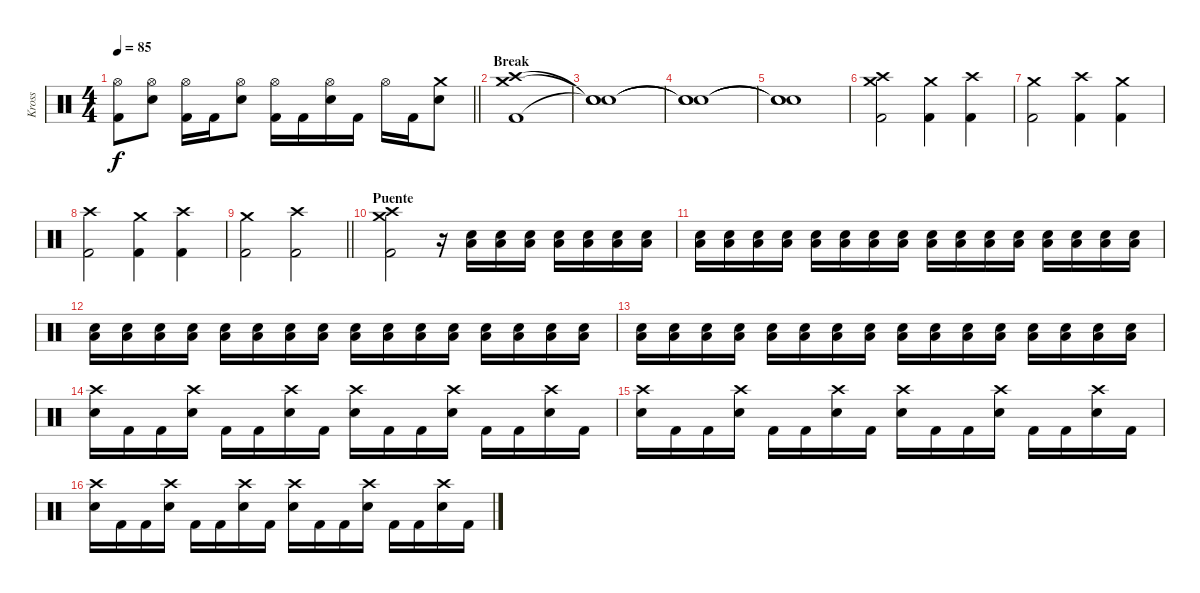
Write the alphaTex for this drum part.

\track ("Kross" "Kross") {instrument percussion}
\staff
\articulation defaults
\ts (4 4)
\tempo 85
\clef neutral
\barLineRight lightlight
\ks c
("Hi-Hat (open)" "Kick (hit) 2").8{dy f} ("Hi-Hat (open)" "Electric Snare (hit)").8 ("Hi-Hat (open)" "Kick (hit) 2").16 "Kick (hit) 2".16 ("Hi-Hat (open)" "Electric Snare (hit)").8 ("Hi-Hat (open)" "Kick (hit) 2").16 "Kick (hit) 2".16 ("Hi-Hat (open)" "Electric Snare (hit)").16 "Kick (hit) 2".16 "Hi-Hat (open)".16 "Kick (hit) 2".16 ("Crash medium (hit)" "Electric Snare (hit)").8 |
\section ("" "Break")
("Crash medium (hit)" "Crash high (hit)" "Kick (hit) 2").1 |
("Snare (hit)"{t} "Snare (hit)"{t} "Snare (hit)"{t}).1 |
("Snare (hit)"{t} "Snare (hit)"{t} "Snare (hit)"{t}).1 |
("Snare (hit)"{t} "Snare (hit)"{t} "Snare (hit)"{t}).1 |
("Crash medium (hit)" "Crash high (hit)" "Kick (hit) 2").2 ("Crash medium (hit)" "Kick (hit) 2").4 ("Crash high (hit)" "Kick (hit) 2").4 |
("Crash medium (hit)" "Kick (hit) 2").2 ("Crash high (hit)" "Kick (hit) 2").4 ("Crash medium (hit)" "Kick (hit) 2").4 |
("Crash high (hit)" "Kick (hit) 2").2 ("Crash medium (hit)" "Kick (hit) 2").4 ("Crash high (hit)" "Kick (hit) 2").4 |
\barLineRight lightlight
("Crash medium (hit)" "Kick (hit) 2").2 ("Crash high (hit)" "Kick (hit) 2").2 |
\section ("" "Puente")
("Crash medium (hit)" "Crash high (hit)" "Kick (hit) 2").2 r.16{volume 0} ("Electric Snare (hit)" "Low Floor Tom (hit)").16{volume 16} ("Electric Snare (hit)" "Low Floor Tom (hit)").16 ("Electric Snare (hit)" "Low Floor Tom (hit)").16 ("Electric Snare (hit)" "Low Floor Tom (hit)").16 ("Electric Snare (hit)" "Low Floor Tom (hit)").16 ("Electric Snare (hit)" "Low Floor Tom (hit)").16 ("Electric Snare (hit)" "Low Floor Tom (hit)").16 |
("Electric Snare (hit)" "Low Floor Tom (hit)").16 ("Electric Snare (hit)" "Low Floor Tom (hit)").16 ("Electric Snare (hit)" "Low Floor Tom (hit)").16 ("Electric Snare (hit)" "Low Floor Tom (hit)").16 ("Electric Snare (hit)" "Low Floor Tom (hit)").16 ("Electric Snare (hit)" "Low Floor Tom (hit)").16 ("Electric Snare (hit)" "Low Floor Tom (hit)").16 ("Electric Snare (hit)" "Low Floor Tom (hit)").16 ("Electric Snare (hit)" "Low Floor Tom (hit)").16 ("Electric Snare (hit)" "Low Floor Tom (hit)").16 ("Electric Snare (hit)" "Low Floor Tom (hit)").16 ("Electric Snare (hit)" "Low Floor Tom (hit)").16 ("Electric Snare (hit)" "Low Floor Tom (hit)").16 ("Electric Snare (hit)" "Low Floor Tom (hit)").16 ("Electric Snare (hit)" "Low Floor Tom (hit)").16 ("Electric Snare (hit)" "Low Floor Tom (hit)").16 |
("Electric Snare (hit)" "Low Floor Tom (hit)").16 ("Electric Snare (hit)" "Low Floor Tom (hit)").16 ("Electric Snare (hit)" "Low Floor Tom (hit)").16 ("Electric Snare (hit)" "Low Floor Tom (hit)").16 ("Electric Snare (hit)" "Low Floor Tom (hit)").16 ("Electric Snare (hit)" "Low Floor Tom (hit)").16 ("Electric Snare (hit)" "Low Floor Tom (hit)").16 ("Electric Snare (hit)" "Low Floor Tom (hit)").16 ("Electric Snare (hit)" "Low Floor Tom (hit)").16 ("Electric Snare (hit)" "Low Floor Tom (hit)").16 ("Electric Snare (hit)" "Low Floor Tom (hit)").16 ("Electric Snare (hit)" "Low Floor Tom (hit)").16 ("Electric Snare (hit)" "Low Floor Tom (hit)").16 ("Electric Snare (hit)" "Low Floor Tom (hit)").16 ("Electric Snare (hit)" "Low Floor Tom (hit)").16 ("Electric Snare (hit)" "Low Floor Tom (hit)").16 |
("Electric Snare (hit)" "Low Floor Tom (hit)").16 ("Electric Snare (hit)" "Low Floor Tom (hit)").16 ("Electric Snare (hit)" "Low Floor Tom (hit)").16 ("Electric Snare (hit)" "Low Floor Tom (hit)").16 ("Electric Snare (hit)" "Low Floor Tom (hit)").16 ("Electric Snare (hit)" "Low Floor Tom (hit)").16 ("Electric Snare (hit)" "Low Floor Tom (hit)").16 ("Electric Snare (hit)" "Low Floor Tom (hit)").16 ("Electric Snare (hit)" "Low Floor Tom (hit)").16 ("Electric Snare (hit)" "Low Floor Tom (hit)").16 ("Electric Snare (hit)" "Low Floor Tom (hit)").16 ("Electric Snare (hit)" "Low Floor Tom (hit)").16 ("Electric Snare (hit)" "Low Floor Tom (hit)").16 ("Electric Snare (hit)" "Low Floor Tom (hit)").16 ("Electric Snare (hit)" "Low Floor Tom (hit)").16 ("Electric Snare (hit)" "Low Floor Tom (hit)").16 |
("Crash high (hit)" "Electric Snare (hit)").16 "Kick (hit) 2".16 "Kick (hit) 2".16 ("Crash high (hit)" "Electric Snare (hit)").16 "Kick (hit) 2".16 "Kick (hit) 2".16 ("Crash high (hit)" "Electric Snare (hit)").16 "Kick (hit) 2".16 ("Crash high (hit)" "Electric Snare (hit)").16 "Kick (hit) 2".16 "Kick (hit) 2".16 ("Crash high (hit)" "Electric Snare (hit)").16 "Kick (hit) 2".16 "Kick (hit) 2".16 ("Crash high (hit)" "Electric Snare (hit)").16 "Kick (hit) 2".16 |
("Crash high (hit)" "Electric Snare (hit)").16 "Kick (hit) 2".16 "Kick (hit) 2".16 ("Crash high (hit)" "Electric Snare (hit)").16 "Kick (hit) 2".16 "Kick (hit) 2".16 ("Crash high (hit)" "Electric Snare (hit)").16 "Kick (hit) 2".16 ("Crash high (hit)" "Electric Snare (hit)").16 "Kick (hit) 2".16 "Kick (hit) 2".16 ("Crash high (hit)" "Electric Snare (hit)").16 "Kick (hit) 2".16 "Kick (hit) 2".16 ("Crash high (hit)" "Electric Snare (hit)").16 "Kick (hit) 2".16 |
("Crash high (hit)" "Electric Snare (hit)").16 "Kick (hit) 2".16 "Kick (hit) 2".16 ("Crash high (hit)" "Electric Snare (hit)").16 "Kick (hit) 2".16 "Kick (hit) 2".16 ("Crash high (hit)" "Electric Snare (hit)").16 "Kick (hit) 2".16 ("Crash high (hit)" "Electric Snare (hit)").16 "Kick (hit) 2".16 "Kick (hit) 2".16 ("Crash high (hit)" "Electric Snare (hit)").16 "Kick (hit) 2".16 "Kick (hit) 2".16 ("Crash high (hit)" "Electric Snare (hit)").16 "Kick (hit) 2".16
